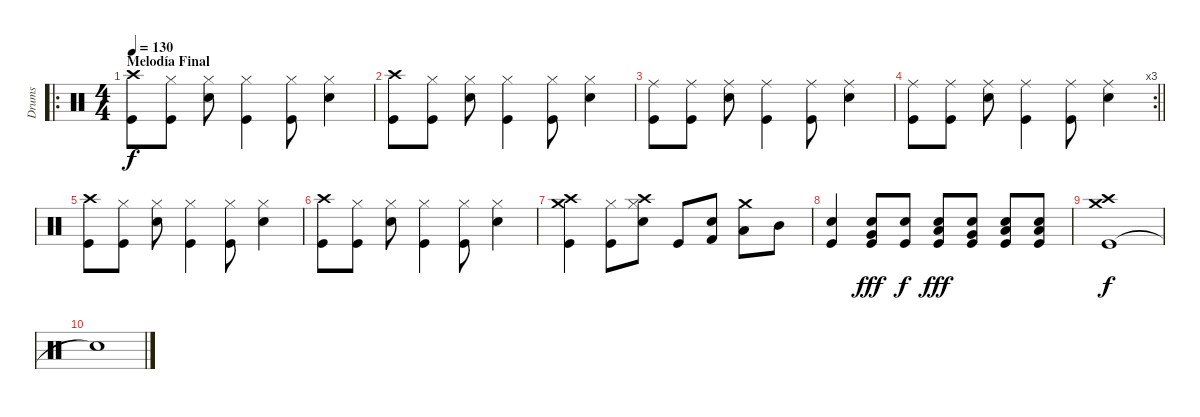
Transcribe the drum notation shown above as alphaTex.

\track ("Drums" "Drums") {instrument percussion}
\staff {score}
\articulation defaults
\ro
\ts (4 4)
\section ("" "Melodía Final")
\tempo 130
\clef neutral
\ks c
("Kick (hit)" "Crash high (hit)").8{dy f} ("Kick (hit)" "Hi-Hat (closed)").8 ("Snare (hit) 2" "Hi-Hat (closed)").8 ("Kick (hit)" "Hi-Hat (closed)").4 ("Kick (hit)" "Hi-Hat (closed)").8 ("Snare (hit) 2" "Hi-Hat (closed)").4 |
("Kick (hit)" "Crash high (hit)").8 ("Kick (hit)" "Hi-Hat (closed)").8 ("Snare (hit) 2" "Hi-Hat (closed)").8 ("Kick (hit)" "Hi-Hat (closed)").4 ("Kick (hit)" "Hi-Hat (closed)").8 ("Snare (hit) 2" "Hi-Hat (closed)").4 |
("Kick (hit)" "Ride (middle)").8 ("Kick (hit)" "Ride (middle)").8 ("Snare (hit) 2" "Ride (middle)").8 ("Kick (hit)" "Ride (middle)").4 ("Kick (hit)" "Ride (middle)").8 ("Snare (hit) 2" "Ride (middle)").4 |
\rc 3
\barLineRight lightlight
("Kick (hit)" "Ride (middle)").8 ("Kick (hit)" "Ride (middle)").8 ("Snare (hit) 2" "Ride (middle)").8 ("Kick (hit)" "Ride (middle)").4 ("Kick (hit)" "Ride (middle)").8 ("Snare (hit) 2" "Ride (middle)").4 |
("Kick (hit)" "Crash high (hit)").8 ("Kick (hit)" "Hi-Hat (closed)").8 ("Snare (hit) 2" "Hi-Hat (closed)").8 ("Kick (hit)" "Hi-Hat (closed)").4 ("Kick (hit)" "Hi-Hat (closed)").8 ("Snare (hit) 2" "Hi-Hat (closed)").4 |
("Kick (hit)" "Crash high (hit)").8 ("Kick (hit)" "Hi-Hat (closed)").8 ("Snare (hit) 2" "Hi-Hat (closed)").8 ("Kick (hit)" "Hi-Hat (closed)").4 ("Kick (hit)" "Hi-Hat (closed)").8 ("Snare (hit) 2" "Hi-Hat (closed)").4 |
("Kick (hit)" "Crash high (hit)" "Crash medium (hit)").4 ("Kick (hit)" "Hi-Hat (closed)").8 ("Crash high (hit)" "Snare (hit) 2" "Hi-Hat (closed)").8 "Kick (hit)".8 ("Snare (hit) 2" "Kick (hit) 2").8 ("Crash medium (hit)" "Low Tom (hit)").8 "Mid Tom (hit)".8 |
("Kick (hit)" "Snare (hit) 2").4 ("Kick (hit)" "Snare (hit) 2" "Very Low Tom (hit)").8{dy fff} ("Kick (hit)" "Snare (hit) 2").8{dy f} ("Kick (hit)" "Snare (hit) 2" "Low Tom (hit)").8{dy fff} ("Kick (hit)" "Snare (hit) 2" "Very Low Tom (hit)").8 ("Kick (hit)" "Snare (hit) 2" "Low Floor Tom (hit)").8 ("Kick (hit)" "Snare (hit) 2" "Low Floor Tom (hit)").8 |
("Kick (hit)" "Crash medium (hit)" "Crash high (hit)").1{dy f} |
"Snare (hit)"{t}.1
